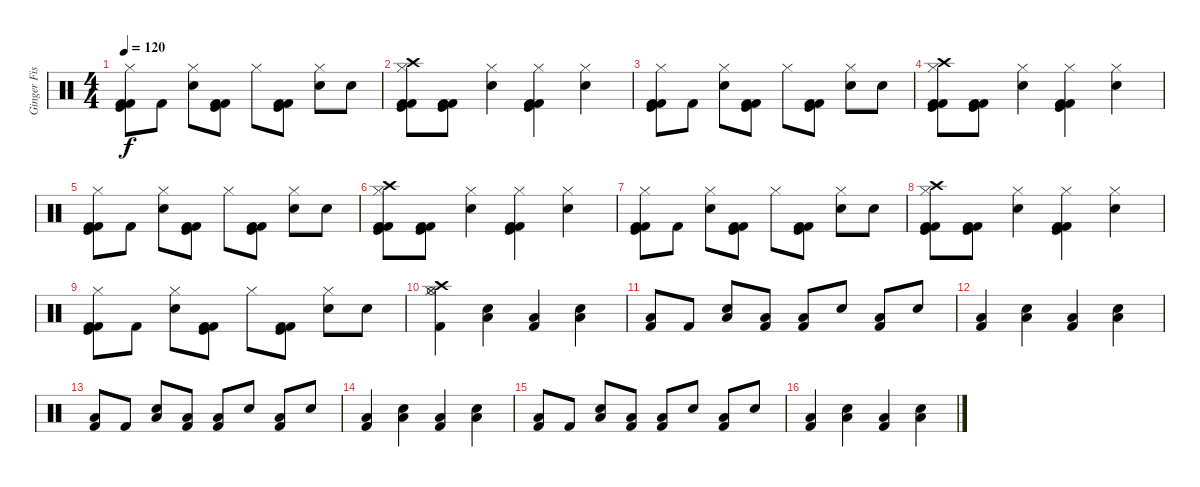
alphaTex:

\track ("Ginger Fish" "Ginger Fis") {instrument percussion}
\staff {score}
\articulation defaults
\ts (4 4)
\tempo 120
\clef neutral
\ks c
("Hi-Hat (closed)" "Kick (hit) 2" "Kick (hit)" "Kick (hit) 2").8{dy f} "Kick (hit) 2".8 ("Hi-Hat (closed)" "Electric Snare (hit)").8 ("Kick (hit) 2" "Kick (hit)" "Kick (hit) 2").8 "Hi-Hat (closed)".8 ("Kick (hit) 2" "Kick (hit)" "Kick (hit) 2").8 ("Hi-Hat (closed)" "Electric Snare (hit)").8 "Electric Snare (hit)".8 |
("Crash high (hit)" "Hi-Hat (closed)" "Kick (hit) 2" "Kick (hit)" "Kick (hit) 2").8 ("Kick (hit) 2" "Kick (hit)" "Kick (hit) 2").8 ("Hi-Hat (closed)" "Electric Snare (hit)").4 ("Hi-Hat (closed)" "Kick (hit) 2" "Kick (hit)" "Kick (hit) 2").4 ("Hi-Hat (closed)" "Electric Snare (hit)").4 |
("Hi-Hat (closed)" "Kick (hit) 2" "Kick (hit)" "Kick (hit) 2").8 "Kick (hit) 2".8 ("Hi-Hat (closed)" "Electric Snare (hit)").8 ("Kick (hit) 2" "Kick (hit)" "Kick (hit) 2").8 "Hi-Hat (closed)".8 ("Kick (hit) 2" "Kick (hit)" "Kick (hit) 2").8 ("Hi-Hat (closed)" "Electric Snare (hit)").8 "Electric Snare (hit)".8 |
("Crash high (hit)" "Hi-Hat (closed)" "Kick (hit) 2" "Kick (hit)" "Kick (hit) 2").8 ("Kick (hit) 2" "Kick (hit)" "Kick (hit) 2").8 ("Hi-Hat (closed)" "Electric Snare (hit)").4 ("Hi-Hat (closed)" "Kick (hit) 2" "Kick (hit)" "Kick (hit) 2").4 ("Hi-Hat (closed)" "Electric Snare (hit)").4 |
("Hi-Hat (closed)" "Kick (hit) 2" "Kick (hit)" "Kick (hit) 2").8 "Kick (hit) 2".8 ("Hi-Hat (closed)" "Electric Snare (hit)").8 ("Kick (hit) 2" "Kick (hit)" "Kick (hit) 2").8 "Hi-Hat (closed)".8 ("Kick (hit) 2" "Kick (hit)" "Kick (hit) 2").8 ("Hi-Hat (closed)" "Electric Snare (hit)").8 "Electric Snare (hit)".8 |
("Crash high (hit)" "Hi-Hat (closed)" "Kick (hit) 2" "Kick (hit)" "Kick (hit) 2").8 ("Kick (hit) 2" "Kick (hit)" "Kick (hit) 2").8 ("Hi-Hat (closed)" "Electric Snare (hit)").4 ("Hi-Hat (closed)" "Kick (hit) 2" "Kick (hit)" "Kick (hit) 2").4 ("Hi-Hat (closed)" "Electric Snare (hit)").4 |
("Hi-Hat (closed)" "Kick (hit) 2" "Kick (hit)" "Kick (hit) 2").8 "Kick (hit) 2".8 ("Hi-Hat (closed)" "Electric Snare (hit)").8 ("Kick (hit) 2" "Kick (hit)" "Kick (hit) 2").8 "Hi-Hat (closed)".8 ("Kick (hit) 2" "Kick (hit)" "Kick (hit) 2").8 ("Hi-Hat (closed)" "Electric Snare (hit)").8 "Electric Snare (hit)".8 |
("Crash high (hit)" "Hi-Hat (closed)" "Kick (hit) 2" "Kick (hit)" "Kick (hit) 2").8 ("Kick (hit) 2" "Kick (hit)" "Kick (hit) 2").8 ("Hi-Hat (closed)" "Electric Snare (hit)").4 ("Hi-Hat (closed)" "Kick (hit) 2" "Kick (hit)" "Kick (hit) 2").4 ("Hi-Hat (closed)" "Electric Snare (hit)").4 |
("Hi-Hat (closed)" "Kick (hit) 2" "Kick (hit)" "Kick (hit) 2").8 "Kick (hit) 2".8 ("Hi-Hat (closed)" "Electric Snare (hit)").8 ("Kick (hit) 2" "Kick (hit)" "Kick (hit) 2").8 "Hi-Hat (closed)".8 ("Kick (hit) 2" "Kick (hit)" "Kick (hit) 2").8 ("Hi-Hat (closed)" "Electric Snare (hit)").8 "Electric Snare (hit)".8 |
("Crash high (hit)" "Hi-Hat (open)" "Hi-Hat (closed)" "Kick (hit) 2").4 ("Low Tom (hit)" "Electric Snare (hit)").4 ("Low Tom (hit)" "Kick (hit) 2").4 ("Low Tom (hit)" "Electric Snare (hit)").4 |
("Low Tom (hit)" "Kick (hit) 2").8 "Kick (hit) 2".8 ("Low Tom (hit)" "Electric Snare (hit)").8 ("Low Tom (hit)" "Kick (hit) 2").8 ("Low Tom (hit)" "Kick (hit) 2").8 "Electric Snare (hit)".8 ("Low Tom (hit)" "Kick (hit) 2").8 "Electric Snare (hit)".8 |
("Low Tom (hit)" "Kick (hit) 2").4 ("Low Tom (hit)" "Electric Snare (hit)").4 ("Low Tom (hit)" "Kick (hit) 2").4 ("Low Tom (hit)" "Electric Snare (hit)").4 |
("Low Tom (hit)" "Kick (hit) 2").8 "Kick (hit) 2".8 ("Low Tom (hit)" "Electric Snare (hit)").8 ("Low Tom (hit)" "Kick (hit) 2").8 ("Low Tom (hit)" "Kick (hit) 2").8 "Electric Snare (hit)".8 ("Low Tom (hit)" "Kick (hit) 2").8 "Electric Snare (hit)".8 |
("Low Tom (hit)" "Kick (hit) 2").4 ("Low Tom (hit)" "Electric Snare (hit)").4 ("Low Tom (hit)" "Kick (hit) 2").4 ("Low Tom (hit)" "Electric Snare (hit)").4 |
("Low Tom (hit)" "Kick (hit) 2").8 "Kick (hit) 2".8 ("Low Tom (hit)" "Electric Snare (hit)").8 ("Low Tom (hit)" "Kick (hit) 2").8 ("Low Tom (hit)" "Kick (hit) 2").8 "Electric Snare (hit)".8 ("Low Tom (hit)" "Kick (hit) 2").8 "Electric Snare (hit)".8 |
("Low Tom (hit)" "Kick (hit) 2").4 ("Low Tom (hit)" "Electric Snare (hit)").4 ("Low Tom (hit)" "Kick (hit) 2").4 ("Low Tom (hit)" "Electric Snare (hit)").4
